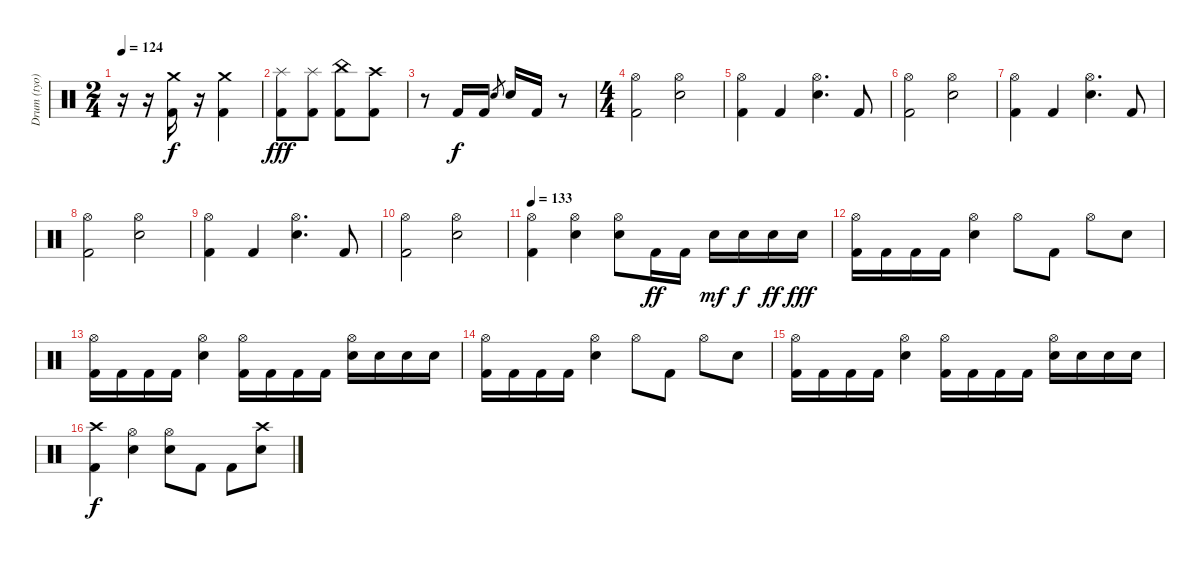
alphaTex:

\track ("Drum (tyo)" "Drum (tyo)") {instrument percussion}
\staff {score}
\articulation defaults
\ts (2 4)
\tempo 124
\clef neutral
\ks c
r.16{dy f} r.16 ("Kick (hit) 2" "Crash medium (hit)").16 r.16 ("Kick (hit) 2" "Crash medium (hit)").4 |
("Splash (hit)" "Kick (hit) 2").8{dy fff} ("Splash (hit)" "Kick (hit) 2").8 ("China (hit)" "Kick (hit) 2").8 ("Crash high (hit)" "Kick (hit) 2").8 |
r.8 "Kick (hit) 2".16{dy f} "Kick (hit) 2".16 "Electric Snare (hit)".8{gr} "Electric Snare (hit)".16 "Kick (hit) 2".16 r.8 |
\ts (4 4)
("Hi-Hat (open)" "Kick (hit) 2").2 ("Hi-Hat (open)" "Electric Snare (hit)").2 |
("Kick (hit) 2" "Hi-Hat (open)").4 "Kick (hit) 2".4 ("Hi-Hat (open)" "Electric Snare (hit)").4{d} "Kick (hit) 2".8 |
("Kick (hit) 2" "Hi-Hat (open)").2 ("Electric Snare (hit)" "Hi-Hat (open)").2 |
("Kick (hit) 2" "Hi-Hat (open)").4 "Kick (hit) 2".4 ("Hi-Hat (open)" "Electric Snare (hit)").4{d} "Kick (hit) 2".8 |
("Hi-Hat (open)" "Kick (hit) 2").2 ("Hi-Hat (open)" "Electric Snare (hit)").2 |
("Kick (hit) 2" "Hi-Hat (open)").4 "Kick (hit) 2".4 ("Hi-Hat (open)" "Electric Snare (hit)").4{d} "Kick (hit) 2".8 |
("Kick (hit) 2" "Hi-Hat (open)").2 ("Electric Snare (hit)" "Hi-Hat (open)").2 |
\tempo 133
("Kick (hit) 2" "Hi-Hat (open)").4 ("Electric Snare (hit)" "Hi-Hat (open)").4 ("Hi-Hat (open)" "Electric Snare (hit)").8 "Kick (hit) 2".16{dy ff} "Kick (hit) 2".16 "Electric Snare (hit)".16{dy mf} "Electric Snare (hit)".16{dy f} "Electric Snare (hit)".16{dy ff} "Electric Snare (hit)".16{dy fff} |
("Kick (hit) 2" "Hi-Hat (open)").16 "Kick (hit) 2".16 "Kick (hit) 2".16 "Kick (hit) 2".16 ("Electric Snare (hit)" "Hi-Hat (open)").4 "Hi-Hat (open)".8 "Kick (hit) 2".8 "Hi-Hat (open)".8 "Electric Snare (hit)".8 |
("Kick (hit) 2" "Hi-Hat (open)").16 "Kick (hit) 2".16 "Kick (hit) 2".16 "Kick (hit) 2".16 ("Electric Snare (hit)" "Hi-Hat (open)").4 ("Kick (hit) 2" "Hi-Hat (open)").16 "Kick (hit) 2".16 "Kick (hit) 2".16 "Kick (hit) 2".16 ("Electric Snare (hit)" "Hi-Hat (open)").16 "Electric Snare (hit)".16 "Electric Snare (hit)".16 "Electric Snare (hit)".16 |
("Kick (hit) 2" "Hi-Hat (open)").16 "Kick (hit) 2".16 "Kick (hit) 2".16 "Kick (hit) 2".16 ("Electric Snare (hit)" "Hi-Hat (open)").4 "Hi-Hat (open)".8 "Kick (hit) 2".8 "Hi-Hat (open)".8 "Electric Snare (hit)".8 |
("Kick (hit) 2" "Hi-Hat (open)").16 "Kick (hit) 2".16 "Kick (hit) 2".16 "Kick (hit) 2".16 ("Electric Snare (hit)" "Hi-Hat (open)").4 ("Kick (hit) 2" "Hi-Hat (open)").16 "Kick (hit) 2".16 "Kick (hit) 2".16 "Kick (hit) 2".16 ("Electric Snare (hit)" "Hi-Hat (open)").16 "Electric Snare (hit)".16 "Electric Snare (hit)".16 "Electric Snare (hit)".16 |
("Crash high (hit)" "Kick (hit) 2").4{dy f} ("Electric Snare (hit)" "Hi-Hat (open)").4 ("Electric Snare (hit)" "Hi-Hat (open)").8 "Kick (hit) 2".8 "Kick (hit) 2".8 ("Electric Snare (hit)" "Crash high (hit)").8
